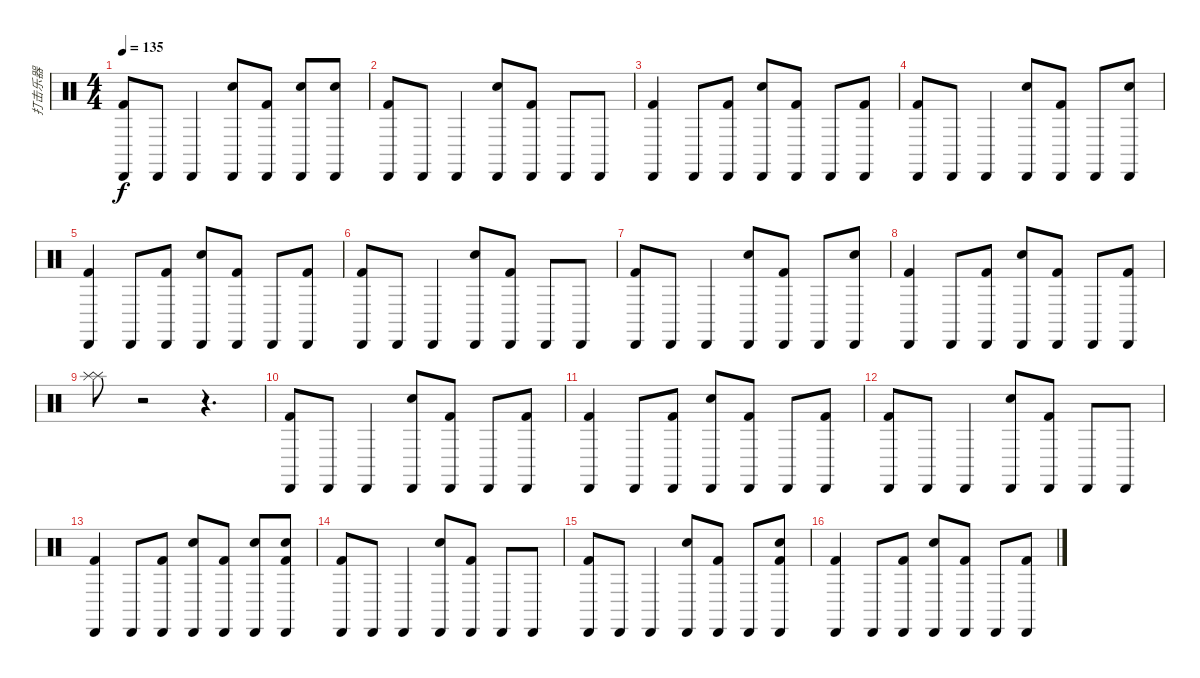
\track ("打击乐器" "打击乐器") {instrument percussion}
\staff {score}
\articulation defaults
\ts (4 4)
\tempo 135
\clef neutral
\ks c
("Cabasa (hit)" "Kick (hit) 2").8{dy f} "Cabasa (hit)".8 "Cabasa (hit)".4 ("Snare (hit) 2" "Cabasa (hit)").8 ("Cabasa (hit)" "Kick (hit) 2").8 ("Snare (hit) 2" "Cabasa (hit)").8 ("Snare (hit) 2" "Cabasa (hit)").8 |
("Cabasa (hit)" "Kick (hit) 2").8 "Cabasa (hit)".8 "Cabasa (hit)".4 ("Snare (hit) 2" "Cabasa (hit)").8 ("Cabasa (hit)" "Kick (hit) 2").8 "Cabasa (hit)".8 "Cabasa (hit)".8 |
("Cabasa (hit)" "Kick (hit) 2").4 "Cabasa (hit)".8 ("Cabasa (hit)" "Kick (hit) 2").8 ("Snare (hit) 2" "Cabasa (hit)").8 ("Cabasa (hit)" "Kick (hit) 2").8 "Cabasa (hit)".8 ("Cabasa (hit)" "Kick (hit) 2").8 |
("Cabasa (hit)" "Kick (hit) 2").8 "Cabasa (hit)".8 "Cabasa (hit)".4 ("Snare (hit) 2" "Cabasa (hit)").8 ("Cabasa (hit)" "Kick (hit) 2").8 "Cabasa (hit)".8 ("Snare (hit) 2" "Cabasa (hit)").8 |
("Cabasa (hit)" "Kick (hit) 2").4 "Cabasa (hit)".8 ("Cabasa (hit)" "Kick (hit) 2").8 ("Snare (hit) 2" "Cabasa (hit)").8 ("Cabasa (hit)" "Kick (hit) 2").8 "Cabasa (hit)".8 ("Cabasa (hit)" "Kick (hit) 2").8 |
("Cabasa (hit)" "Kick (hit) 2").8 "Cabasa (hit)".8 "Cabasa (hit)".4 ("Snare (hit) 2" "Cabasa (hit)").8 ("Cabasa (hit)" "Kick (hit) 2").8 "Cabasa (hit)".8 "Cabasa (hit)".8 |
("Cabasa (hit)" "Kick (hit) 2").8 "Cabasa (hit)".8 "Cabasa (hit)".4 ("Snare (hit) 2" "Cabasa (hit)").8 ("Cabasa (hit)" "Kick (hit) 2").8 "Cabasa (hit)".8 ("Snare (hit) 2" "Cabasa (hit)").8 |
("Cabasa (hit)" "Kick (hit) 2").4 "Cabasa (hit)".8 ("Cabasa (hit)" "Kick (hit) 2").8 ("Snare (hit) 2" "Cabasa (hit)").8 ("Cabasa (hit)" "Kick (hit) 2").8 "Cabasa (hit)".8 ("Cabasa (hit)" "Kick (hit) 2").8 |
("Splash (hit)" "Splash (hit)").8 r.2 r.4{d} |
("Cabasa (hit)" "Kick (hit) 2").8 "Cabasa (hit)".8 "Cabasa (hit)".4 ("Snare (hit) 2" "Cabasa (hit)").8 ("Cabasa (hit)" "Kick (hit) 2").8 "Cabasa (hit)".8 ("Cabasa (hit)" "Kick (hit) 2").8 |
("Cabasa (hit)" "Kick (hit) 2").4 "Cabasa (hit)".8 ("Cabasa (hit)" "Kick (hit) 2").8 ("Snare (hit) 2" "Cabasa (hit)").8 ("Cabasa (hit)" "Kick (hit) 2").8 "Cabasa (hit)".8 ("Cabasa (hit)" "Kick (hit) 2").8 |
("Cabasa (hit)" "Kick (hit) 2").8 "Cabasa (hit)".8 "Cabasa (hit)".4 ("Snare (hit) 2" "Cabasa (hit)").8 ("Cabasa (hit)" "Kick (hit) 2").8 "Cabasa (hit)".8 "Cabasa (hit)".8 |
("Cabasa (hit)" "Kick (hit) 2").4 "Cabasa (hit)".8 ("Cabasa (hit)" "Kick (hit) 2").8 ("Snare (hit) 2" "Cabasa (hit)").8 ("Cabasa (hit)" "Kick (hit) 2").8 ("Snare (hit) 2" "Cabasa (hit)").8 ("Snare (hit) 2" "Cabasa (hit)" "Kick (hit) 2").8 |
("Cabasa (hit)" "Kick (hit) 2").8 "Cabasa (hit)".8 "Cabasa (hit)".4 ("Snare (hit) 2" "Cabasa (hit)").8 ("Cabasa (hit)" "Kick (hit) 2").8 "Cabasa (hit)".8 "Cabasa (hit)".8 |
("Cabasa (hit)" "Kick (hit) 2").8 "Cabasa (hit)".8 "Cabasa (hit)".4 ("Snare (hit) 2" "Cabasa (hit)").8 ("Cabasa (hit)" "Kick (hit) 2").8 "Cabasa (hit)".8 ("Snare (hit) 2" "Cabasa (hit)" "Kick (hit) 2").8 |
("Cabasa (hit)" "Kick (hit) 2").4 "Cabasa (hit)".8 ("Cabasa (hit)" "Kick (hit) 2").8 ("Snare (hit) 2" "Cabasa (hit)").8 ("Cabasa (hit)" "Kick (hit) 2").8 "Cabasa (hit)".8 ("Cabasa (hit)" "Kick (hit) 2").8
